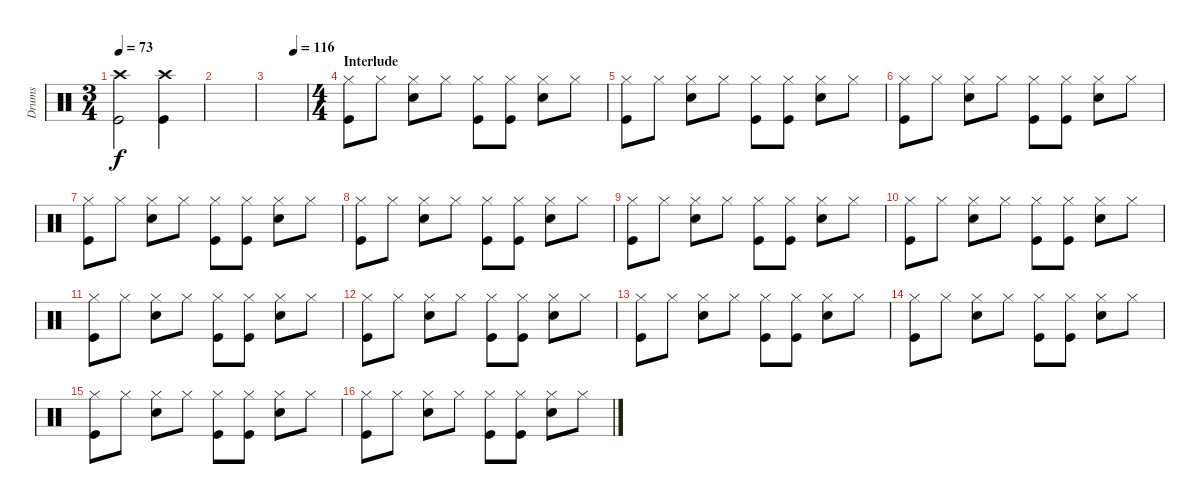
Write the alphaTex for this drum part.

\track ("Drums" "Drums") {instrument percussion}
\staff {score}
\articulation defaults
\ts (3 4)
\tempo 73
\clef neutral
\ks c
("Crash high (hit)" "Kick (hit)").2{dy f} ("Crash high (hit)" "Kick (hit)").4 |
|
\tempo (116 0.6666666666666666)
|
\ts (4 4)
\section ("" "Interlude")
("Hi-Hat (closed)" "Kick (hit)").8 "Hi-Hat (closed)".8 ("Hi-Hat (closed)" "Snare (hit) 2").8 "Hi-Hat (closed)".8 ("Hi-Hat (closed)" "Kick (hit)").8 ("Hi-Hat (closed)" "Kick (hit)").8 ("Hi-Hat (closed)" "Snare (hit) 2").8 "Hi-Hat (closed)".8 |
("Hi-Hat (closed)" "Kick (hit)").8 "Hi-Hat (closed)".8 ("Hi-Hat (closed)" "Snare (hit) 2").8 "Hi-Hat (closed)".8 ("Hi-Hat (closed)" "Kick (hit)").8 ("Hi-Hat (closed)" "Kick (hit)").8 ("Hi-Hat (closed)" "Snare (hit) 2").8 "Hi-Hat (closed)".8 |
("Hi-Hat (closed)" "Kick (hit)").8 "Hi-Hat (closed)".8 ("Hi-Hat (closed)" "Snare (hit) 2").8 "Hi-Hat (closed)".8 ("Hi-Hat (closed)" "Kick (hit)").8 ("Hi-Hat (closed)" "Kick (hit)").8 ("Hi-Hat (closed)" "Snare (hit) 2").8 "Hi-Hat (closed)".8 |
("Hi-Hat (closed)" "Kick (hit)").8 "Hi-Hat (closed)".8 ("Hi-Hat (closed)" "Snare (hit) 2").8 "Hi-Hat (closed)".8 ("Hi-Hat (closed)" "Kick (hit)").8 ("Hi-Hat (closed)" "Kick (hit)").8 ("Hi-Hat (closed)" "Snare (hit) 2").8 "Hi-Hat (closed)".8 |
("Hi-Hat (closed)" "Kick (hit)").8 "Hi-Hat (closed)".8 ("Hi-Hat (closed)" "Snare (hit) 2").8 "Hi-Hat (closed)".8 ("Hi-Hat (closed)" "Kick (hit)").8 ("Hi-Hat (closed)" "Kick (hit)").8 ("Hi-Hat (closed)" "Snare (hit) 2").8 "Hi-Hat (closed)".8 |
("Hi-Hat (closed)" "Kick (hit)").8 "Hi-Hat (closed)".8 ("Hi-Hat (closed)" "Snare (hit) 2").8 "Hi-Hat (closed)".8 ("Hi-Hat (closed)" "Kick (hit)").8 ("Hi-Hat (closed)" "Kick (hit)").8 ("Hi-Hat (closed)" "Snare (hit) 2").8 "Hi-Hat (closed)".8 |
("Hi-Hat (closed)" "Kick (hit)").8 "Hi-Hat (closed)".8 ("Hi-Hat (closed)" "Snare (hit) 2").8 "Hi-Hat (closed)".8 ("Hi-Hat (closed)" "Kick (hit)").8 ("Hi-Hat (closed)" "Kick (hit)").8 ("Hi-Hat (closed)" "Snare (hit) 2").8 "Hi-Hat (closed)".8 |
("Hi-Hat (closed)" "Kick (hit)").8 "Hi-Hat (closed)".8 ("Hi-Hat (closed)" "Snare (hit) 2").8 "Hi-Hat (closed)".8 ("Hi-Hat (closed)" "Kick (hit)").8 ("Hi-Hat (closed)" "Kick (hit)").8 ("Hi-Hat (closed)" "Snare (hit) 2").8 "Hi-Hat (closed)".8 |
("Hi-Hat (closed)" "Kick (hit)").8 "Hi-Hat (closed)".8 ("Hi-Hat (closed)" "Snare (hit) 2").8 "Hi-Hat (closed)".8 ("Hi-Hat (closed)" "Kick (hit)").8 ("Hi-Hat (closed)" "Kick (hit)").8 ("Hi-Hat (closed)" "Snare (hit) 2").8 "Hi-Hat (closed)".8 |
("Hi-Hat (closed)" "Kick (hit)").8 "Hi-Hat (closed)".8 ("Hi-Hat (closed)" "Snare (hit) 2").8 "Hi-Hat (closed)".8 ("Hi-Hat (closed)" "Kick (hit)").8 ("Hi-Hat (closed)" "Kick (hit)").8 ("Hi-Hat (closed)" "Snare (hit) 2").8 "Hi-Hat (closed)".8 |
("Hi-Hat (closed)" "Kick (hit)").8 "Hi-Hat (closed)".8 ("Hi-Hat (closed)" "Snare (hit) 2").8 "Hi-Hat (closed)".8 ("Hi-Hat (closed)" "Kick (hit)").8 ("Hi-Hat (closed)" "Kick (hit)").8 ("Hi-Hat (closed)" "Snare (hit) 2").8 "Hi-Hat (closed)".8 |
("Hi-Hat (closed)" "Kick (hit)").8 "Hi-Hat (closed)".8 ("Hi-Hat (closed)" "Snare (hit) 2").8 "Hi-Hat (closed)".8 ("Hi-Hat (closed)" "Kick (hit)").8 ("Hi-Hat (closed)" "Kick (hit)").8 ("Hi-Hat (closed)" "Snare (hit) 2").8 "Hi-Hat (closed)".8 |
("Hi-Hat (closed)" "Kick (hit)").8 "Hi-Hat (closed)".8 ("Hi-Hat (closed)" "Snare (hit) 2").8 "Hi-Hat (closed)".8 ("Hi-Hat (closed)" "Kick (hit)").8 ("Hi-Hat (closed)" "Kick (hit)").8 ("Hi-Hat (closed)" "Snare (hit) 2").8 "Hi-Hat (closed)".8
